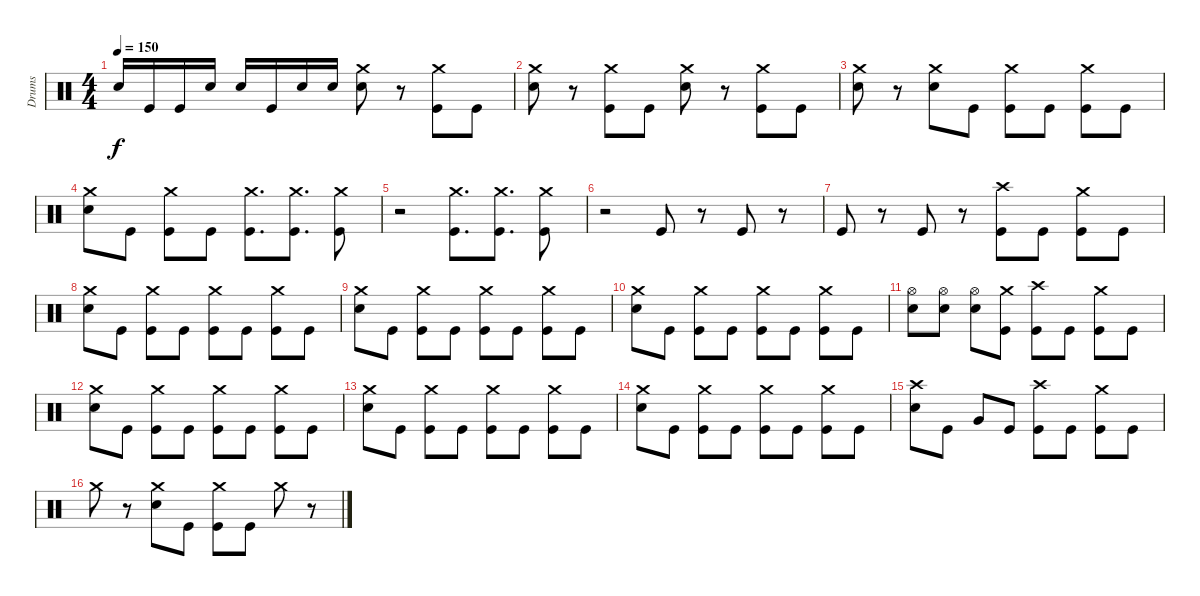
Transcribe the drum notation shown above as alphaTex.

\track ("Drums" "Drums") {instrument percussion}
\staff {score}
\articulation defaults
\ts (4 4)
\tempo 150
\clef neutral
\ks c "Electric Snare (hit)".16{dy f} "Kick (hit)".16 "Kick (hit)".16 "Electric Snare (hit)".16 "Electric Snare (hit)".16 "Kick (hit)".16 "Electric Snare (hit)".16 "Electric Snare (hit)".16
("Crash medium (hit)" "Electric Snare (hit)").8 r.8 ("Crash medium (hit)" "Kick (hit)").8 "Kick (hit)".8 |
("Crash medium (hit)" "Electric Snare (hit)").8 r.8 ("Crash medium (hit)" "Kick (hit)").8 "Kick (hit)".8 ("Crash medium (hit)" "Electric Snare (hit)").8 r.8 ("Crash medium (hit)" "Kick (hit)").8 "Kick (hit)".8 |
("Crash medium (hit)" "Electric Snare (hit)").8 r.8 ("Crash medium (hit)" "Electric Snare (hit)").8 "Kick (hit)".8 ("Crash medium (hit)" "Kick (hit)").8 "Kick (hit)".8 ("Crash medium (hit)" "Kick (hit)").8 "Kick (hit)".8 |
("Crash medium (hit)" "Electric Snare (hit)").8 "Kick (hit)".8 ("Crash medium (hit)" "Kick (hit)").8 "Kick (hit)".8 ("Crash medium (hit)" "Kick (hit)").8{d} ("Crash medium (hit)" "Kick (hit)").8{d} ("Crash medium (hit)" "Kick (hit)").8 |
r.2 ("Crash medium (hit)" "Kick (hit)").8{d} ("Crash medium (hit)" "Kick (hit)").8{d} ("Crash medium (hit)" "Kick (hit)").8 |
r.2 "Kick (hit)".8 r.8 "Kick (hit)".8 r.8 |
"Kick (hit)".8 r.8 "Kick (hit)".8 r.8 ("Crash high (hit)" "Kick (hit)").8 "Kick (hit)".8 ("Crash medium (hit)" "Kick (hit)").8 "Kick (hit)".8 |
("Crash medium (hit)" "Electric Snare (hit)").8 "Kick (hit)".8 ("Crash medium (hit)" "Kick (hit)").8 "Kick (hit)".8 ("Crash medium (hit)" "Kick (hit)").8 "Kick (hit)".8 ("Crash medium (hit)" "Kick (hit)").8 "Kick (hit)".8 |
("Crash medium (hit)" "Electric Snare (hit)").8 "Kick (hit)".8 ("Crash medium (hit)" "Kick (hit)").8 "Kick (hit)".8 ("Crash medium (hit)" "Kick (hit)").8 "Kick (hit)".8 ("Crash medium (hit)" "Kick (hit)").8 "Kick (hit)".8 |
("Crash medium (hit)" "Electric Snare (hit)").8 "Kick (hit)".8 ("Crash medium (hit)" "Kick (hit)").8 "Kick (hit)".8 ("Crash medium (hit)" "Kick (hit)").8 "Kick (hit)".8 ("Crash medium (hit)" "Kick (hit)").8 "Kick (hit)".8 |
("Hi-Hat (open)" "Electric Snare (hit)").8 ("Hi-Hat (open)" "Electric Snare (hit)").8 ("Hi-Hat (open)" "Electric Snare (hit)").8 ("Crash medium (hit)" "Kick (hit)").8 ("Crash high (hit)" "Kick (hit)").8 "Kick (hit)".8 ("Crash medium (hit)" "Kick (hit)").8 "Kick (hit)".8 |
("Crash medium (hit)" "Electric Snare (hit)").8 "Kick (hit)".8 ("Crash medium (hit)" "Kick (hit)").8 "Kick (hit)".8 ("Crash medium (hit)" "Kick (hit)").8 "Kick (hit)".8 ("Crash medium (hit)" "Kick (hit)").8 "Kick (hit)".8 |
("Crash medium (hit)" "Electric Snare (hit)").8 "Kick (hit)".8 ("Crash medium (hit)" "Kick (hit)").8 "Kick (hit)".8 ("Crash medium (hit)" "Kick (hit)").8 "Kick (hit)".8 ("Crash medium (hit)" "Kick (hit)").8 "Kick (hit)".8 |
("Crash medium (hit)" "Electric Snare (hit)").8 "Kick (hit)".8 ("Crash medium (hit)" "Kick (hit)").8 "Kick (hit)".8 ("Crash medium (hit)" "Kick (hit)").8 "Kick (hit)".8 ("Crash medium (hit)" "Kick (hit)").8 "Kick (hit)".8 |
("Crash high (hit)" "Electric Snare (hit)").8 "Kick (hit)".8 "Very Low Tom (hit)".8 "Kick (hit)".8 ("Crash high (hit)" "Kick (hit)").8 "Kick (hit)".8 ("Crash medium (hit)" "Kick (hit)").8 "Kick (hit)".8 |
"Crash medium (hit)".8 r.8 ("Crash medium (hit)" "Electric Snare (hit)").8 "Kick (hit)".8 ("Crash medium (hit)" "Kick (hit)").8 "Kick (hit)".8 "Crash medium (hit)".8 r.8
